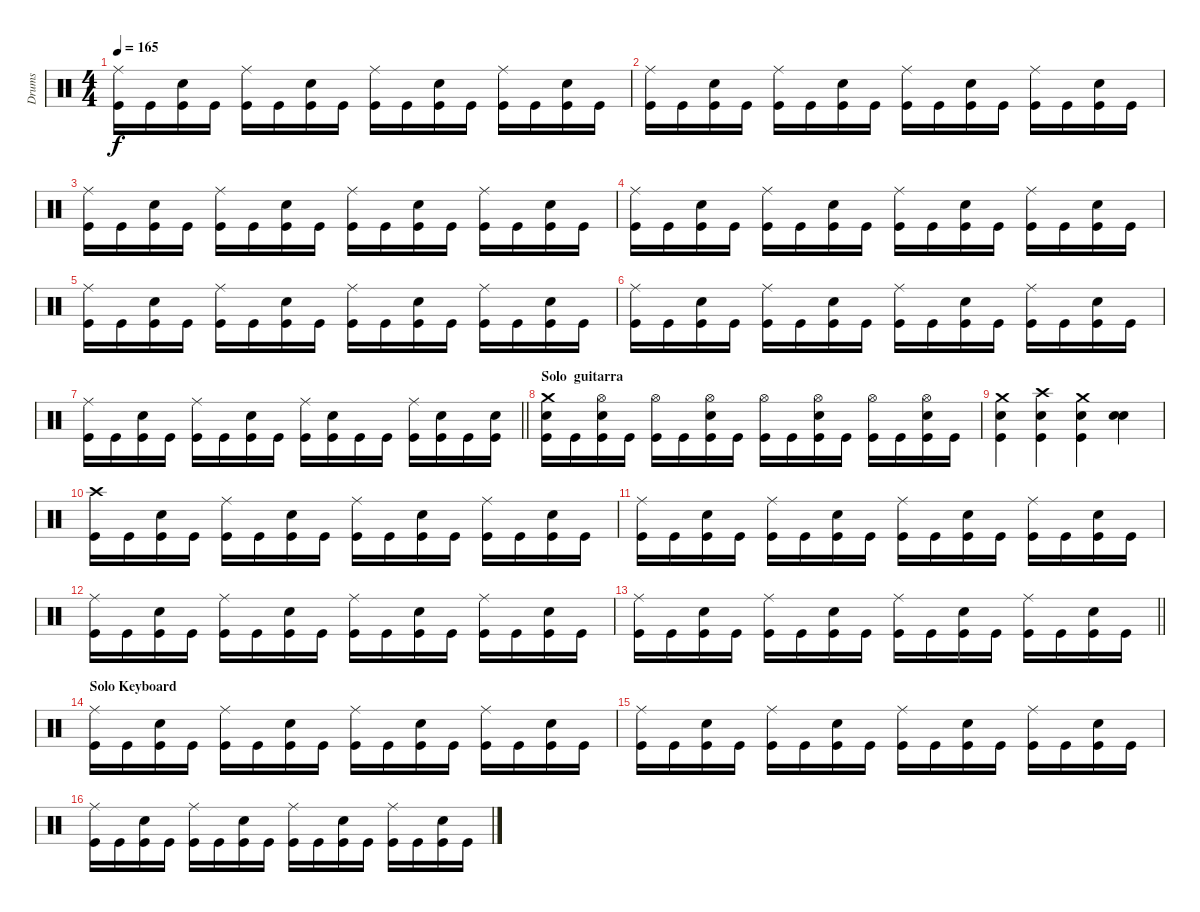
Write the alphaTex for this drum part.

\track ("Drums" "Drums") {instrument percussion}
\staff {score}
\articulation defaults
\ts (4 4)
\tempo 165
\clef neutral
\ks c
("Ride (middle)" "Kick (hit)").16{dy f} "Kick (hit)".16 ("Electric Snare (hit)" "Kick (hit)").16 "Kick (hit)".16 ("Ride (middle)" "Kick (hit)").16 "Kick (hit)".16 ("Electric Snare (hit)" "Kick (hit)").16 "Kick (hit)".16 ("Ride (middle)" "Kick (hit)").16 "Kick (hit)".16 ("Electric Snare (hit)" "Kick (hit)").16 "Kick (hit)".16 ("Ride (middle)" "Kick (hit)").16 "Kick (hit)".16 ("Electric Snare (hit)" "Kick (hit)").16 "Kick (hit)".16 |
("Ride (middle)" "Kick (hit)").16 "Kick (hit)".16 ("Electric Snare (hit)" "Kick (hit)").16 "Kick (hit)".16 ("Ride (middle)" "Kick (hit)").16 "Kick (hit)".16 ("Electric Snare (hit)" "Kick (hit)").16 "Kick (hit)".16 ("Ride (middle)" "Kick (hit)").16 "Kick (hit)".16 ("Electric Snare (hit)" "Kick (hit)").16 "Kick (hit)".16 ("Ride (middle)" "Kick (hit)").16 "Kick (hit)".16 ("Electric Snare (hit)" "Kick (hit)").16 "Kick (hit)".16 |
("Ride (middle)" "Kick (hit)").16 "Kick (hit)".16 ("Electric Snare (hit)" "Kick (hit)").16 "Kick (hit)".16 ("Ride (middle)" "Kick (hit)").16 "Kick (hit)".16 ("Electric Snare (hit)" "Kick (hit)").16 "Kick (hit)".16 ("Ride (middle)" "Kick (hit)").16 "Kick (hit)".16 ("Electric Snare (hit)" "Kick (hit)").16 "Kick (hit)".16 ("Ride (middle)" "Kick (hit)").16 "Kick (hit)".16 ("Electric Snare (hit)" "Kick (hit)").16 "Kick (hit)".16 |
("Ride (middle)" "Kick (hit)").16 "Kick (hit)".16 ("Electric Snare (hit)" "Kick (hit)").16 "Kick (hit)".16 ("Ride (middle)" "Kick (hit)").16 "Kick (hit)".16 ("Electric Snare (hit)" "Kick (hit)").16 "Kick (hit)".16 ("Ride (middle)" "Kick (hit)").16 "Kick (hit)".16 ("Electric Snare (hit)" "Kick (hit)").16 "Kick (hit)".16 ("Ride (middle)" "Kick (hit)").16 "Kick (hit)".16 ("Electric Snare (hit)" "Kick (hit)").16 "Kick (hit)".16 |
("Ride (middle)" "Kick (hit)").16 "Kick (hit)".16 ("Electric Snare (hit)" "Kick (hit)").16 "Kick (hit)".16 ("Ride (middle)" "Kick (hit)").16 "Kick (hit)".16 ("Electric Snare (hit)" "Kick (hit)").16 "Kick (hit)".16 ("Ride (middle)" "Kick (hit)").16 "Kick (hit)".16 ("Electric Snare (hit)" "Kick (hit)").16 "Kick (hit)".16 ("Ride (middle)" "Kick (hit)").16 "Kick (hit)".16 ("Electric Snare (hit)" "Kick (hit)").16 "Kick (hit)".16 |
("Ride (middle)" "Kick (hit)").16 "Kick (hit)".16 ("Electric Snare (hit)" "Kick (hit)").16 "Kick (hit)".16 ("Ride (middle)" "Kick (hit)").16 "Kick (hit)".16 ("Electric Snare (hit)" "Kick (hit)").16 "Kick (hit)".16 ("Ride (middle)" "Kick (hit)").16 "Kick (hit)".16 ("Electric Snare (hit)" "Kick (hit)").16 "Kick (hit)".16 ("Ride (middle)" "Kick (hit)").16 "Kick (hit)".16 ("Electric Snare (hit)" "Kick (hit)").16 "Kick (hit)".16 |
\barLineRight lightlight
("Ride (middle)" "Kick (hit)").16 "Kick (hit)".16 ("Electric Snare (hit)" "Kick (hit)").16 "Kick (hit)".16 ("Ride (middle)" "Kick (hit)").16 "Kick (hit)".16 ("Electric Snare (hit)" "Kick (hit)").16 "Kick (hit)".16 ("Ride (middle)" "Kick (hit)").16 ("Electric Snare (hit)" "Kick (hit)").16 "Kick (hit)".16 "Kick (hit)".16 ("Ride (middle)" "Kick (hit)").16 ("Electric Snare (hit)" "Kick (hit)").16 "Kick (hit)".16 ("Electric Snare (hit)" "Kick (hit)").16 |
\section ("" "Solo  guitarra")
("Crash medium (hit)" "Electric Snare (hit)" "Kick (hit)").16 "Kick (hit)".16 ("Electric Snare (hit)" "Hi-Hat (open)" "Kick (hit)").16 "Kick (hit)".16 ("Hi-Hat (open)" "Kick (hit)").16 "Kick (hit)".16 ("Electric Snare (hit)" "Hi-Hat (open)" "Kick (hit)").16 "Kick (hit)".16 ("Hi-Hat (open)" "Kick (hit)").16 "Kick (hit)".16 ("Electric Snare (hit)" "Hi-Hat (open)" "Kick (hit)").16 "Kick (hit)".16 ("Hi-Hat (open)" "Kick (hit)").16 "Kick (hit)".16 ("Electric Snare (hit)" "Hi-Hat (open)" "Kick (hit)").16 "Kick (hit)".16 |
("Crash medium (hit)" "Electric Snare (hit)" "Kick (hit)").4 ("Kick (hit)" "Electric Snare (hit)" "Crash high (hit)").4 ("Kick (hit)" "Electric Snare (hit)" "Crash medium (hit)").4 ("Electric Snare (hit)" "Electric Snare (hit)").4 |
("Crash high (hit)" "Kick (hit)").16{volume 14 balance 8} "Kick (hit)".16 ("Electric Snare (hit)" "Kick (hit)").16 "Kick (hit)".16 ("Ride (middle)" "Kick (hit)").16 "Kick (hit)".16 ("Electric Snare (hit)" "Kick (hit)").16 "Kick (hit)".16 ("Ride (middle)" "Kick (hit)").16 "Kick (hit)".16 ("Electric Snare (hit)" "Kick (hit)").16 "Kick (hit)".16 ("Ride (middle)" "Kick (hit)").16 "Kick (hit)".16 ("Electric Snare (hit)" "Kick (hit)").16 "Kick (hit)".16 |
("Ride (middle)" "Kick (hit)").16 "Kick (hit)".16 ("Electric Snare (hit)" "Kick (hit)").16 "Kick (hit)".16 ("Ride (middle)" "Kick (hit)").16 "Kick (hit)".16 ("Electric Snare (hit)" "Kick (hit)").16 "Kick (hit)".16 ("Ride (middle)" "Kick (hit)").16 "Kick (hit)".16 ("Electric Snare (hit)" "Kick (hit)").16 "Kick (hit)".16 ("Ride (middle)" "Kick (hit)").16 "Kick (hit)".16 ("Electric Snare (hit)" "Kick (hit)").16 "Kick (hit)".16 |
("Ride (middle)" "Kick (hit)").16 "Kick (hit)".16 ("Electric Snare (hit)" "Kick (hit)").16 "Kick (hit)".16 ("Ride (middle)" "Kick (hit)").16 "Kick (hit)".16 ("Electric Snare (hit)" "Kick (hit)").16 "Kick (hit)".16 ("Ride (middle)" "Kick (hit)").16 "Kick (hit)".16 ("Electric Snare (hit)" "Kick (hit)").16 "Kick (hit)".16 ("Ride (middle)" "Kick (hit)").16 "Kick (hit)".16 ("Electric Snare (hit)" "Kick (hit)").16 "Kick (hit)".16 |
\barLineRight lightlight
("Ride (middle)" "Kick (hit)").16 "Kick (hit)".16 ("Electric Snare (hit)" "Kick (hit)").16 "Kick (hit)".16 ("Ride (middle)" "Kick (hit)").16 "Kick (hit)".16 ("Electric Snare (hit)" "Kick (hit)").16 "Kick (hit)".16 ("Ride (middle)" "Kick (hit)").16 "Kick (hit)".16 ("Electric Snare (hit)" "Kick (hit)").16 "Kick (hit)".16 ("Ride (middle)" "Kick (hit)").16 "Kick (hit)".16 ("Electric Snare (hit)" "Kick (hit)").16 "Kick (hit)".16 |
\section ("" "Solo Keyboard")
("Ride (middle)" "Kick (hit)").16 "Kick (hit)".16 ("Electric Snare (hit)" "Kick (hit)").16 "Kick (hit)".16 ("Ride (middle)" "Kick (hit)").16 "Kick (hit)".16 ("Electric Snare (hit)" "Kick (hit)").16 "Kick (hit)".16 ("Ride (middle)" "Kick (hit)").16 "Kick (hit)".16 ("Electric Snare (hit)" "Kick (hit)").16 "Kick (hit)".16 ("Ride (middle)" "Kick (hit)").16 "Kick (hit)".16 ("Electric Snare (hit)" "Kick (hit)").16 "Kick (hit)".16 |
("Ride (middle)" "Kick (hit)").16 "Kick (hit)".16 ("Electric Snare (hit)" "Kick (hit)").16 "Kick (hit)".16 ("Ride (middle)" "Kick (hit)").16 "Kick (hit)".16 ("Electric Snare (hit)" "Kick (hit)").16 "Kick (hit)".16 ("Ride (middle)" "Kick (hit)").16 "Kick (hit)".16 ("Electric Snare (hit)" "Kick (hit)").16 "Kick (hit)".16 ("Ride (middle)" "Kick (hit)").16 "Kick (hit)".16 ("Electric Snare (hit)" "Kick (hit)").16 "Kick (hit)".16 |
("Ride (middle)" "Kick (hit)").16 "Kick (hit)".16 ("Electric Snare (hit)" "Kick (hit)").16 "Kick (hit)".16 ("Ride (middle)" "Kick (hit)").16 "Kick (hit)".16 ("Electric Snare (hit)" "Kick (hit)").16 "Kick (hit)".16 ("Ride (middle)" "Kick (hit)").16 "Kick (hit)".16 ("Electric Snare (hit)" "Kick (hit)").16 "Kick (hit)".16 ("Ride (middle)" "Kick (hit)").16 "Kick (hit)".16 ("Electric Snare (hit)" "Kick (hit)").16 "Kick (hit)".16
